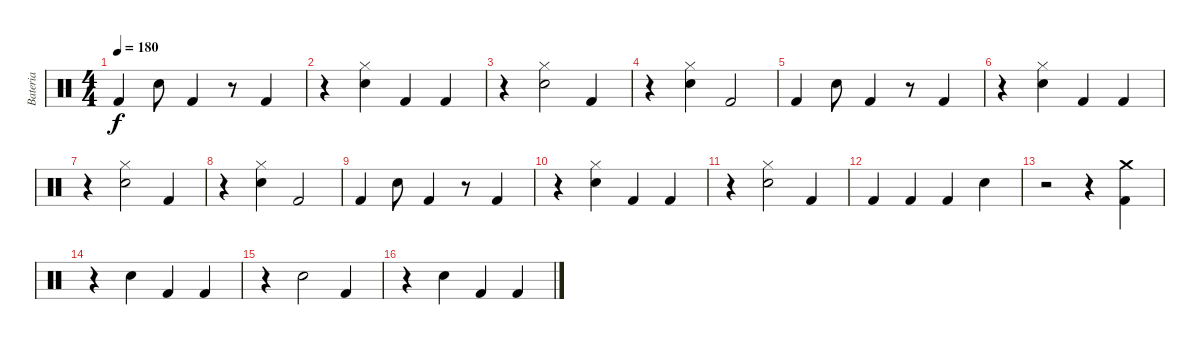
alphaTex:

\track ("Bateria" "Bateria") {instrument percussion}
\staff {score}
\articulation defaults
\ts (4 4)
\tempo 180
\clef neutral
\ks c "Kick (hit) 2".4{dy f} "Electric Snare (hit)".8 "Kick (hit) 2".4
r.8 "Kick (hit) 2".4 |
r.4 ("Electric Snare (hit)" "Hi-Hat (closed)").4 "Kick (hit) 2".4 "Kick (hit) 2".4 |
r.4 ("Electric Snare (hit)" "Hi-Hat (closed)").2 "Kick (hit) 2".4 |
r.4 ("Electric Snare (hit)" "Hi-Hat (closed)").4 "Kick (hit) 2".2 |
"Kick (hit) 2".4 "Electric Snare (hit)".8 "Kick (hit) 2".4 r.8 "Kick (hit) 2".4 |
r.4 ("Electric Snare (hit)" "Hi-Hat (closed)").4 "Kick (hit) 2".4 "Kick (hit) 2".4 |
r.4 ("Electric Snare (hit)" "Hi-Hat (closed)").2 "Kick (hit) 2".4 |
r.4 ("Electric Snare (hit)" "Hi-Hat (closed)").4 "Kick (hit) 2".2 |
"Kick (hit) 2".4 "Electric Snare (hit)".8 "Kick (hit) 2".4 r.8 "Kick (hit) 2".4 |
r.4 ("Electric Snare (hit)" "Hi-Hat (closed)").4 "Kick (hit) 2".4 "Kick (hit) 2".4 |
r.4 ("Electric Snare (hit)" "Hi-Hat (closed)").2 "Kick (hit) 2".4 |
"Kick (hit) 2".4 "Kick (hit) 2".4 "Kick (hit) 2".4 "Electric Snare (hit)".4 |
r.2 r.4 ("Crash medium (hit)" "Kick (hit) 2").4 |
r.4 "Electric Snare (hit)".4 "Kick (hit) 2".4 "Kick (hit) 2".4 |
r.4 "Electric Snare (hit)".2 "Kick (hit) 2".4 |
r.4 "Electric Snare (hit)".4 "Kick (hit) 2".4 "Kick (hit) 2".4
